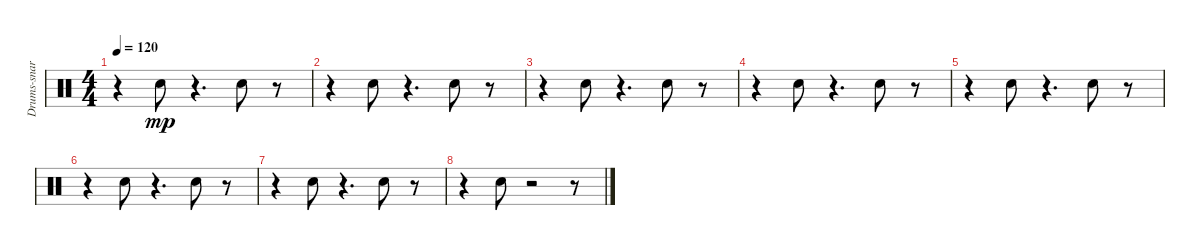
\track ("Drums-snare drum 1" "Drums-snar") {instrument percussion}
\staff {score}
\articulation defaults
\ts (4 4)
\tempo 120
\clef neutral
\ks c
r.4{dy mp} "Snare (hit) 2".8 r.4{d} "Snare (hit) 2".8 r.8 |
r.4 "Snare (hit) 2".8 r.4{d} "Snare (hit) 2".8 r.8 |
r.4 "Snare (hit) 2".8 r.4{d} "Snare (hit) 2".8 r.8 |
r.4 "Snare (hit) 2".8 r.4{d} "Snare (hit) 2".8 r.8 |
r.4 "Snare (hit) 2".8 r.4{d} "Snare (hit) 2".8 r.8 |
r.4 "Snare (hit) 2".8 r.4{d} "Snare (hit) 2".8 r.8 |
r.4 "Snare (hit) 2".8 r.4{d} "Snare (hit) 2".8 r.8 |
r.4 "Snare (hit) 2".8 r.2 r.8
